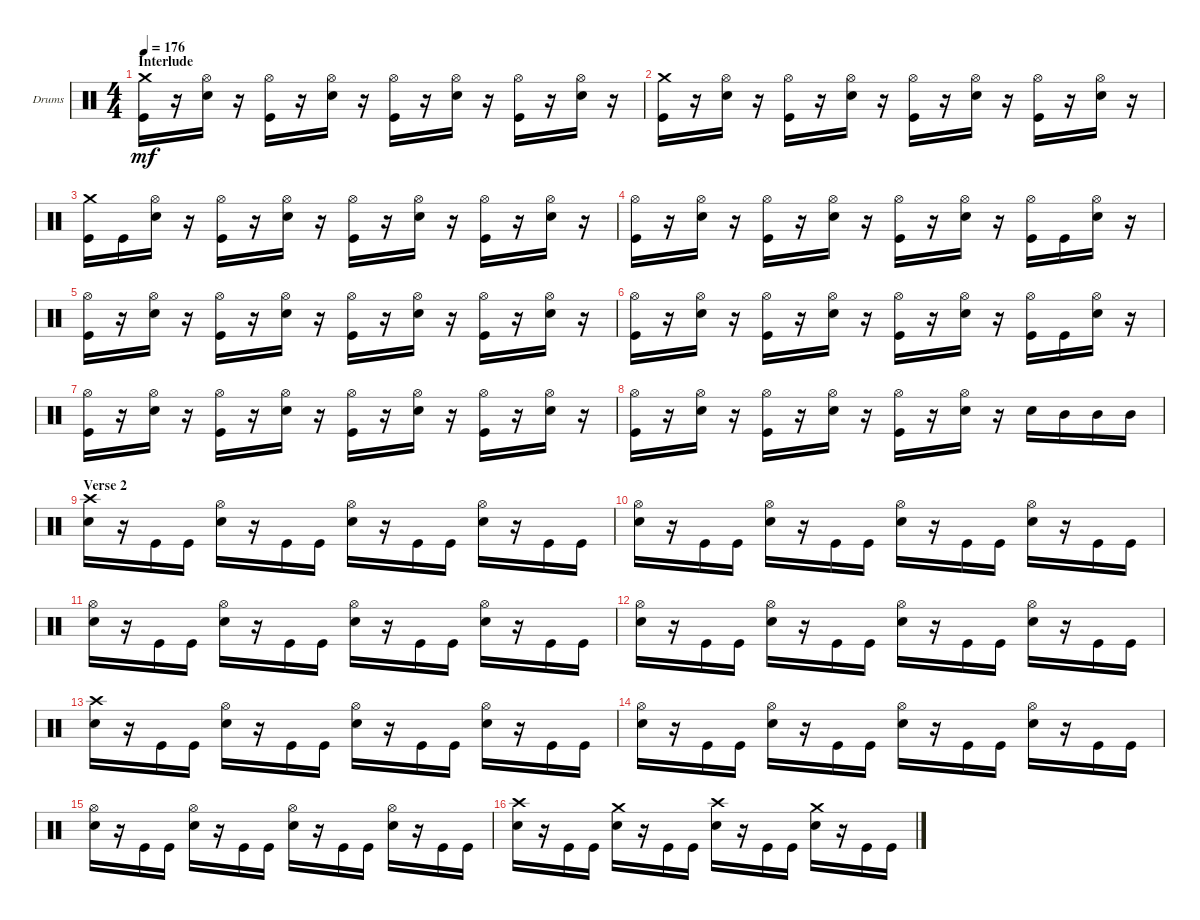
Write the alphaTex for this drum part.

\bracketExtendMode groupsimilarinstruments
\firstSystemTrackNameOrientation horizontal
\otherSystemsTrackNameOrientation horizontal
\track ("Drums" "Drums") {instrument percussion}
\staff {score}
\articulation defaults
\ts (4 4)
\section ("" "Interlude")
\tempo 176
\clef neutral
\ks c
("Kick (hit)" "Crash medium (hit)").16{dy mf} r.16 ("Hi-Hat (open)" "Snare (hit) 2").16 r.16 ("Hi-Hat (open)" "Kick (hit)").16 r.16 ("Hi-Hat (open)" "Snare (hit) 2").16 r.16 ("Hi-Hat (open)" "Kick (hit)").16 r.16 ("Hi-Hat (open)" "Snare (hit) 2").16 r.16 ("Hi-Hat (open)" "Kick (hit)").16 r.16 ("Hi-Hat (open)" "Snare (hit) 2").16 r.16 |
("Crash medium (hit)" "Kick (hit)").16 r.16 ("Hi-Hat (open)" "Snare (hit) 2").16 r.16 ("Hi-Hat (open)" "Kick (hit)").16 r.16 ("Hi-Hat (open)" "Snare (hit) 2").16 r.16 ("Hi-Hat (open)" "Kick (hit)").16 r.16 ("Hi-Hat (open)" "Snare (hit) 2").16 r.16 ("Hi-Hat (open)" "Kick (hit)").16 r.16 ("Hi-Hat (open)" "Snare (hit) 2").16 r.16 |
("Crash medium (hit)" "Kick (hit)").16 "Kick (hit)".16 ("Hi-Hat (open)" "Snare (hit) 2").16 r.16 ("Hi-Hat (open)" "Kick (hit)").16 r.16 ("Hi-Hat (open)" "Snare (hit) 2").16 r.16 ("Hi-Hat (open)" "Kick (hit)").16 r.16 ("Hi-Hat (open)" "Snare (hit) 2").16 r.16 ("Hi-Hat (open)" "Kick (hit)").16 r.16 ("Hi-Hat (open)" "Snare (hit) 2").16 r.16 |
("Kick (hit)" "Hi-Hat (open)").16 r.16 ("Hi-Hat (open)" "Snare (hit) 2").16 r.16 ("Hi-Hat (open)" "Kick (hit)").16 r.16 ("Hi-Hat (open)" "Snare (hit) 2").16 r.16 ("Hi-Hat (open)" "Kick (hit)").16 r.16 ("Hi-Hat (open)" "Snare (hit) 2").16 r.16 ("Hi-Hat (open)" "Kick (hit)").16 "Kick (hit)".16 ("Hi-Hat (open)" "Snare (hit) 2").16 r.16 |
("Kick (hit)" "Hi-Hat (open)").16 r.16 ("Hi-Hat (open)" "Snare (hit) 2").16 r.16 ("Hi-Hat (open)" "Kick (hit)").16 r.16 ("Hi-Hat (open)" "Snare (hit) 2").16 r.16 ("Hi-Hat (open)" "Kick (hit)").16 r.16 ("Hi-Hat (open)" "Snare (hit) 2").16 r.16 ("Hi-Hat (open)" "Kick (hit)").16 r.16 ("Hi-Hat (open)" "Snare (hit) 2").16 r.16 |
("Kick (hit)" "Hi-Hat (open)").16 r.16 ("Hi-Hat (open)" "Snare (hit) 2").16 r.16 ("Hi-Hat (open)" "Kick (hit)").16 r.16 ("Hi-Hat (open)" "Snare (hit) 2").16 r.16 ("Hi-Hat (open)" "Kick (hit)").16 r.16 ("Hi-Hat (open)" "Snare (hit) 2").16 r.16 ("Hi-Hat (open)" "Kick (hit)").16 "Kick (hit)".16 ("Hi-Hat (open)" "Snare (hit) 2").16 r.16 |
("Kick (hit)" "Hi-Hat (open)").16 r.16 ("Hi-Hat (open)" "Snare (hit) 2").16 r.16 ("Hi-Hat (open)" "Kick (hit)").16 r.16 ("Hi-Hat (open)" "Snare (hit) 2").16 r.16 ("Hi-Hat (open)" "Kick (hit)").16 r.16 ("Hi-Hat (open)" "Snare (hit) 2").16 r.16 ("Hi-Hat (open)" "Kick (hit)").16 r.16 ("Hi-Hat (open)" "Snare (hit) 2").16 r.16 |
("Kick (hit)" "Hi-Hat (open)").16 r.16 ("Hi-Hat (open)" "Snare (hit) 2").16 r.16 ("Hi-Hat (open)" "Kick (hit)").16 r.16 ("Hi-Hat (open)" "Snare (hit) 2").16 r.16 ("Hi-Hat (open)" "Kick (hit)").16 r.16 ("Hi-Hat (open)" "Snare (hit) 2").16 r.16 "Snare (hit) 2".16 "Mid Tom (hit)".16 "Mid Tom (hit)".16 "Mid Tom (hit)".16 |
\section ("" "Verse 2")
("Snare (hit) 2" "Crash high (hit)").16 r.16 "Kick (hit)".16 "Kick (hit)".16 ("Snare (hit) 2" "Hi-Hat (open)").16 r.16 "Kick (hit)".16 "Kick (hit)".16 ("Snare (hit) 2" "Hi-Hat (open)").16 r.16 "Kick (hit)".16 "Kick (hit)".16 ("Snare (hit) 2" "Hi-Hat (open)").16 r.16 "Kick (hit)".16 "Kick (hit)".16 |
("Snare (hit) 2" "Hi-Hat (open)").16 r.16 "Kick (hit)".16 "Kick (hit)".16 ("Snare (hit) 2" "Hi-Hat (open)").16 r.16 "Kick (hit)".16 "Kick (hit)".16 ("Snare (hit) 2" "Hi-Hat (open)").16 r.16 "Kick (hit)".16 "Kick (hit)".16 ("Snare (hit) 2" "Hi-Hat (open)").16 r.16 "Kick (hit)".16 "Kick (hit)".16 |
("Snare (hit) 2" "Hi-Hat (open)").16 r.16 "Kick (hit)".16 "Kick (hit)".16 ("Snare (hit) 2" "Hi-Hat (open)").16 r.16 "Kick (hit)".16 "Kick (hit)".16 ("Snare (hit) 2" "Hi-Hat (open)").16 r.16 "Kick (hit)".16 "Kick (hit)".16 ("Snare (hit) 2" "Hi-Hat (open)").16 r.16 "Kick (hit)".16 "Kick (hit)".16 |
("Snare (hit) 2" "Hi-Hat (open)").16 r.16 "Kick (hit)".16 "Kick (hit)".16 ("Snare (hit) 2" "Hi-Hat (open)").16 r.16 "Kick (hit)".16 "Kick (hit)".16 ("Snare (hit) 2" "Hi-Hat (open)").16 r.16 "Kick (hit)".16 "Kick (hit)".16 ("Snare (hit) 2" "Hi-Hat (open)").16 r.16 "Kick (hit)".16 "Kick (hit)".16 |
("Snare (hit) 2" "Crash high (hit)").16 r.16 "Kick (hit)".16 "Kick (hit)".16 ("Snare (hit) 2" "Hi-Hat (open)").16 r.16 "Kick (hit)".16 "Kick (hit)".16 ("Snare (hit) 2" "Hi-Hat (open)").16 r.16 "Kick (hit)".16 "Kick (hit)".16 ("Snare (hit) 2" "Hi-Hat (open)").16 r.16 "Kick (hit)".16 "Kick (hit)".16 |
("Snare (hit) 2" "Hi-Hat (open)").16 r.16 "Kick (hit)".16 "Kick (hit)".16 ("Snare (hit) 2" "Hi-Hat (open)").16 r.16 "Kick (hit)".16 "Kick (hit)".16 ("Snare (hit) 2" "Hi-Hat (open)").16 r.16 "Kick (hit)".16 "Kick (hit)".16 ("Snare (hit) 2" "Hi-Hat (open)").16 r.16 "Kick (hit)".16 "Kick (hit)".16 |
("Snare (hit) 2" "Hi-Hat (open)").16 r.16 "Kick (hit)".16 "Kick (hit)".16 ("Snare (hit) 2" "Hi-Hat (open)").16 r.16 "Kick (hit)".16 "Kick (hit)".16 ("Snare (hit) 2" "Hi-Hat (open)").16 r.16 "Kick (hit)".16 "Kick (hit)".16 ("Snare (hit) 2" "Hi-Hat (open)").16 r.16 "Kick (hit)".16 "Kick (hit)".16 |
("Snare (hit) 2" "Crash high (hit)").16 r.16 "Kick (hit)".16 "Kick (hit)".16 ("Snare (hit) 2" "Crash medium (hit)").16 r.16 "Kick (hit)".16 "Kick (hit)".16 ("Snare (hit) 2" "Crash high (hit)").16 r.16 "Kick (hit)".16 "Kick (hit)".16 ("Snare (hit) 2" "Crash medium (hit)").16 r.16 "Kick (hit)".16 "Kick (hit)".16
